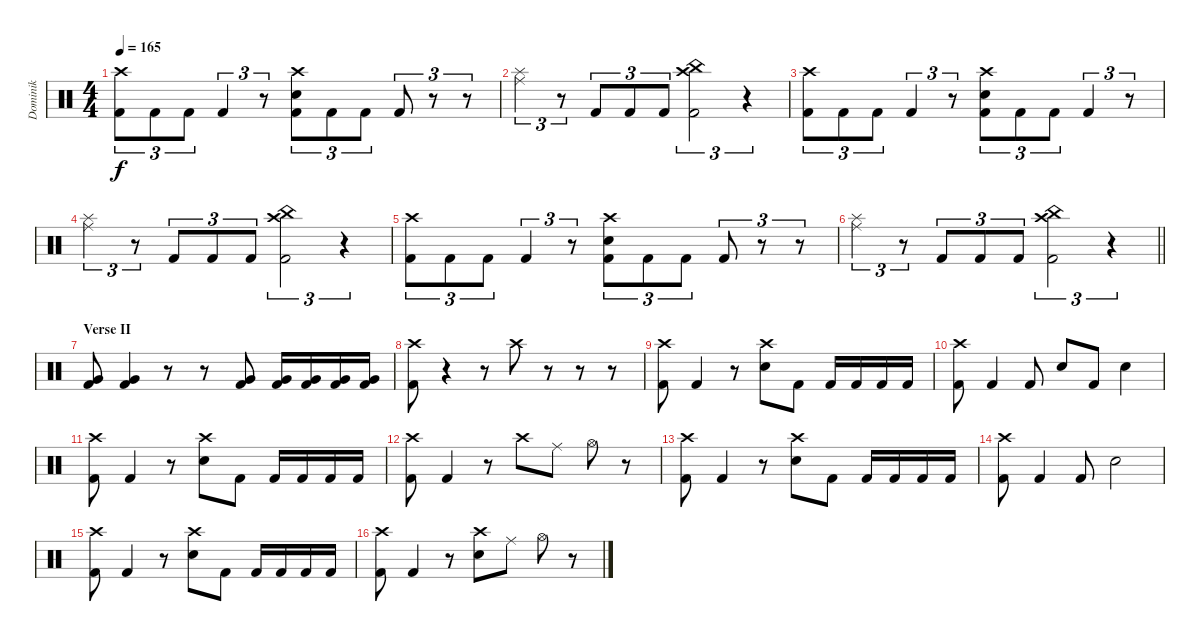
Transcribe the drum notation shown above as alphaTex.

\track ("Dominik" "Dominik") {instrument percussion}
\staff {score}
\articulation defaults
\ts (4 4)
\tempo 165
\clef neutral
\ks c
("Crash high (hit)" "Kick (hit) 2").8{tu (3 2) dy f} "Kick (hit) 2".8{tu (3 2)} "Kick (hit) 2".8{tu (3 2)} "Kick (hit) 2".4{tu (3 2)} r.8{tu (3 2)} ("Crash high (hit)" "Electric Snare (hit)" "Kick (hit) 2").8{tu (3 2)} "Kick (hit) 2".8{tu (3 2)} "Kick (hit) 2".8{tu (3 2)} "Kick (hit) 2".8{tu (3 2)} r.8{tu (3 2)} r.8{tu (3 2)} |
("Splash (hit)" "Ride (middle)").4{tu (3 2)} r.8{tu (3 2)} "Kick (hit) 2".8{tu (3 2)} "Kick (hit) 2".8{tu (3 2)} "Kick (hit) 2".8{tu (3 2)} ("China (hit)" "Crash high (hit)" "Kick (hit) 2").2{tu (3 2)} r.4{tu (3 2)} |
("Crash high (hit)" "Kick (hit) 2").8{tu (3 2)} "Kick (hit) 2".8{tu (3 2)} "Kick (hit) 2".8{tu (3 2)} "Kick (hit) 2".4{tu (3 2)} r.8{tu (3 2)} ("Crash high (hit)" "Electric Snare (hit)" "Kick (hit) 2").8{tu (3 2)} "Kick (hit) 2".8{tu (3 2)} "Kick (hit) 2".8{tu (3 2)} "Kick (hit) 2".4{tu (3 2)} r.8{tu (3 2)} |
("Splash (hit)" "Ride (middle)").4{tu (3 2)} r.8{tu (3 2)} "Kick (hit) 2".8{tu (3 2)} "Kick (hit) 2".8{tu (3 2)} "Kick (hit) 2".8{tu (3 2)} ("China (hit)" "Crash high (hit)" "Kick (hit) 2").2{tu (3 2)} r.4{tu (3 2)} |
("Crash high (hit)" "Kick (hit) 2").8{tu (3 2)} "Kick (hit) 2".8{tu (3 2)} "Kick (hit) 2".8{tu (3 2)} "Kick (hit) 2".4{tu (3 2)} r.8{tu (3 2)} ("Crash high (hit)" "Electric Snare (hit)" "Kick (hit) 2").8{tu (3 2)} "Kick (hit) 2".8{tu (3 2)} "Kick (hit) 2".8{tu (3 2)} "Kick (hit) 2".8{tu (3 2)} r.8{tu (3 2)} r.8{tu (3 2)} |
\barLineRight lightlight
("Splash (hit)" "Ride (middle)").4{tu (3 2)} r.8{tu (3 2)} "Kick (hit) 2".8{tu (3 2)} "Kick (hit) 2".8{tu (3 2)} "Kick (hit) 2".8{tu (3 2)} ("China (hit)" "Crash high (hit)" "Kick (hit) 2").2{tu (3 2)} r.4{tu (3 2)} |
\section ("" "Verse II")
("Very Low Tom (hit)" "Kick (hit) 2").8 ("Very Low Tom (hit)" "Kick (hit) 2").4 r.8 r.8 ("Very Low Tom (hit)" "Kick (hit) 2").8 ("Very Low Tom (hit)" "Kick (hit) 2").16 ("Very Low Tom (hit)" "Kick (hit) 2").16 ("Very Low Tom (hit)" "Kick (hit) 2").16 ("Very Low Tom (hit)" "Kick (hit) 2").16 |
("Crash high (hit)" "Kick (hit) 2").8 r.4 r.8 "Crash high (hit)".8 r.8 r.8 r.8 |
("Crash high (hit)" "Kick (hit) 2").8 "Kick (hit) 2".4 r.8 ("Crash high (hit)" "Electric Snare (hit)").8 "Kick (hit) 2".8 "Kick (hit) 2".16 "Kick (hit) 2".16 "Kick (hit) 2".16 "Kick (hit) 2".16 |
("Crash high (hit)" "Kick (hit) 2").8 "Kick (hit) 2".4 "Kick (hit) 2".8 "Electric Snare (hit)".8 "Kick (hit) 2".8 "Electric Snare (hit)".4 |
("Crash high (hit)" "Kick (hit) 2").8 "Kick (hit) 2".4 r.8 ("Crash high (hit)" "Electric Snare (hit)").8 "Kick (hit) 2".8 "Kick (hit) 2".16 "Kick (hit) 2".16 "Kick (hit) 2".16 "Kick (hit) 2".16 |
("Crash high (hit)" "Kick (hit) 2").8 "Kick (hit) 2".4 r.8 "Crash high (hit)".8 "Ride (middle)".8 "Hi-Hat (open)".8 r.8 |
("Crash high (hit)" "Kick (hit) 2").8 "Kick (hit) 2".4 r.8 ("Crash high (hit)" "Electric Snare (hit)").8 "Kick (hit) 2".8 "Kick (hit) 2".16 "Kick (hit) 2".16 "Kick (hit) 2".16 "Kick (hit) 2".16 |
("Crash high (hit)" "Kick (hit) 2").8 "Kick (hit) 2".4 "Kick (hit) 2".8 "Electric Snare (hit)".2 |
("Crash high (hit)" "Kick (hit) 2").8 "Kick (hit) 2".4 r.8 ("Crash high (hit)" "Electric Snare (hit)").8 "Kick (hit) 2".8 "Kick (hit) 2".16 "Kick (hit) 2".16 "Kick (hit) 2".16 "Kick (hit) 2".16 |
("Crash high (hit)" "Kick (hit) 2").8 "Kick (hit) 2".4 r.8 ("Crash high (hit)" "Electric Snare (hit)").8 "Ride (middle)".8 "Hi-Hat (open)".8 r.8
